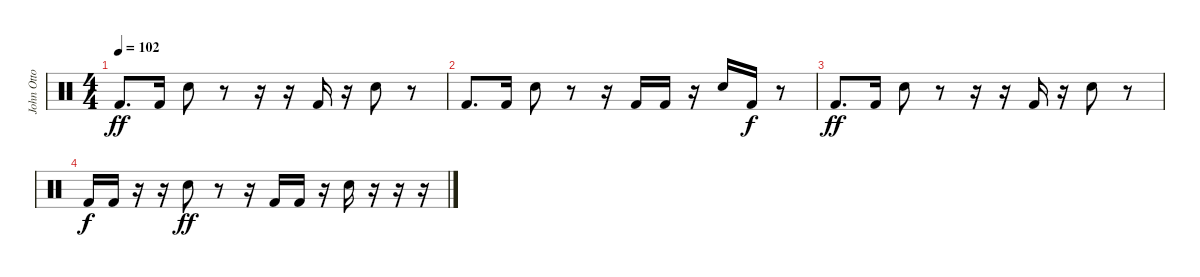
\track ("John Otto (Drums)" "John Otto ") {instrument percussion}
\staff {score}
\articulation defaults
\ts (4 4)
\tempo 102
\clef neutral
\ks c "Kick (hit) 2".8{d dy ff} "Kick (hit) 2".16 "Snare (hit) 2".8
r.8 r.16 r.16 "Kick (hit) 2".16 r.16 "Snare (hit) 2".8 r.8 |
"Kick (hit) 2".8{d} "Kick (hit) 2".16 "Snare (hit) 2".8 r.8 r.16 "Kick (hit) 2".16 "Kick (hit) 2".16 r.16 "Snare (hit) 2".16 "Kick (hit) 2".16{dy f} r.8 |
"Kick (hit) 2".8{d dy ff} "Kick (hit) 2".16 "Snare (hit) 2".8 r.8 r.16 r.16 "Kick (hit) 2".16 r.16 "Snare (hit) 2".8 r.8 |
"Kick (hit) 2".16{dy f} "Kick (hit) 2".16 r.16 r.16 "Snare (hit) 2".8{dy ff} r.8 r.16 "Kick (hit) 2".16 "Kick (hit) 2".16 r.16 "Snare (hit) 2".16 r.16 r.16 r.16
